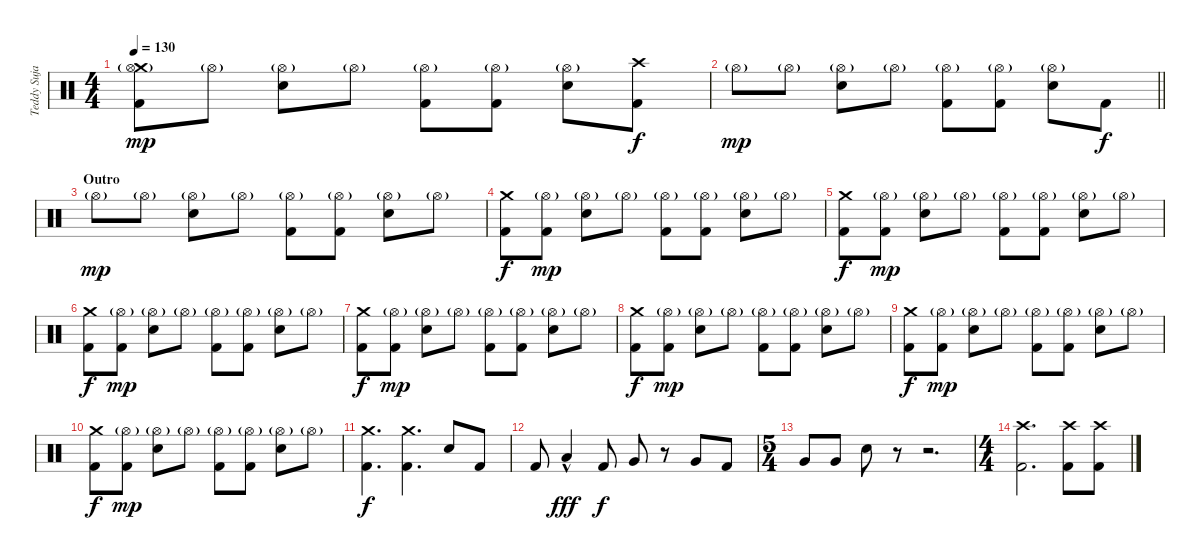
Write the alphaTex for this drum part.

\track ("Teddy Sujaya" "Teddy Suja") {instrument percussion}
\staff {score}
\articulation defaults
\ts (4 4)
\tempo 130
\clef neutral
\ks c
("Crash medium (hit)" "Hi-Hat (open)"{g} "Kick (hit) 2").8{dy mp} "Hi-Hat (open)"{g}.8 ("Hi-Hat (open)"{g} "Electric Snare (hit)").8 "Hi-Hat (open)"{g}.8 ("Hi-Hat (open)"{g} "Kick (hit) 2").8 ("Hi-Hat (open)"{g} "Kick (hit) 2").8 ("Hi-Hat (open)"{g} "Electric Snare (hit)").8 ("Crash high (hit)" "Kick (hit) 2").8{dy f} |
\barLineRight lightlight "Hi-Hat (open)"{g}.8{dy mp} "Hi-Hat (open)"{g}.8
("Hi-Hat (open)"{g} "Electric Snare (hit)").8 "Hi-Hat (open)"{g}.8 ("Hi-Hat (open)"{g} "Kick (hit) 2").8 ("Hi-Hat (open)"{g} "Kick (hit) 2").8 ("Hi-Hat (open)"{g} "Electric Snare (hit)").8 "Kick (hit) 2".8{dy f} |
\section ("" "Outro")
"Hi-Hat (open)"{g}.8{dy mp} "Hi-Hat (open)"{g}.8 ("Hi-Hat (open)"{g} "Electric Snare (hit)").8 "Hi-Hat (open)"{g}.8 ("Hi-Hat (open)"{g} "Kick (hit) 2").8 ("Hi-Hat (open)"{g} "Kick (hit) 2").8 ("Hi-Hat (open)"{g} "Electric Snare (hit)").8 "Hi-Hat (open)"{g}.8 |
("Crash medium (hit)" "Kick (hit) 2").8{dy f} ("Hi-Hat (open)"{g} "Kick (hit) 2").8{dy mp} ("Hi-Hat (open)"{g} "Electric Snare (hit)").8 "Hi-Hat (open)"{g}.8 ("Hi-Hat (open)"{g} "Kick (hit) 2").8 ("Hi-Hat (open)"{g} "Kick (hit) 2").8 ("Hi-Hat (open)"{g} "Electric Snare (hit)").8 "Hi-Hat (open)"{g}.8 |
("Crash medium (hit)" "Kick (hit) 2").8{dy f} ("Hi-Hat (open)"{g} "Kick (hit) 2").8{dy mp} ("Hi-Hat (open)"{g} "Electric Snare (hit)").8 "Hi-Hat (open)"{g}.8 ("Hi-Hat (open)"{g} "Kick (hit) 2").8 ("Hi-Hat (open)"{g} "Kick (hit) 2").8 ("Hi-Hat (open)"{g} "Electric Snare (hit)").8 "Hi-Hat (open)"{g}.8 |
("Crash medium (hit)" "Kick (hit) 2").8{dy f} ("Hi-Hat (open)"{g} "Kick (hit) 2").8{dy mp} ("Hi-Hat (open)"{g} "Electric Snare (hit)").8 "Hi-Hat (open)"{g}.8 ("Hi-Hat (open)"{g} "Kick (hit) 2").8 ("Hi-Hat (open)"{g} "Kick (hit) 2").8 ("Hi-Hat (open)"{g} "Electric Snare (hit)").8 "Hi-Hat (open)"{g}.8 |
("Crash medium (hit)" "Kick (hit) 2").8{dy f} ("Hi-Hat (open)"{g} "Kick (hit) 2").8{dy mp} ("Hi-Hat (open)"{g} "Electric Snare (hit)").8 "Hi-Hat (open)"{g}.8 ("Hi-Hat (open)"{g} "Kick (hit) 2").8 ("Hi-Hat (open)"{g} "Kick (hit) 2").8 ("Hi-Hat (open)"{g} "Electric Snare (hit)").8 "Hi-Hat (open)"{g}.8 |
("Crash medium (hit)" "Kick (hit) 2").8{dy f} ("Hi-Hat (open)"{g} "Kick (hit) 2").8{dy mp} ("Hi-Hat (open)"{g} "Electric Snare (hit)").8 "Hi-Hat (open)"{g}.8 ("Hi-Hat (open)"{g} "Kick (hit) 2").8 ("Hi-Hat (open)"{g} "Kick (hit) 2").8 ("Hi-Hat (open)"{g} "Electric Snare (hit)").8 "Hi-Hat (open)"{g}.8 |
("Crash medium (hit)" "Kick (hit) 2").8{dy f} ("Hi-Hat (open)"{g} "Kick (hit) 2").8{dy mp} ("Hi-Hat (open)"{g} "Electric Snare (hit)").8 "Hi-Hat (open)"{g}.8 ("Hi-Hat (open)"{g} "Kick (hit) 2").8 ("Hi-Hat (open)"{g} "Kick (hit) 2").8 ("Hi-Hat (open)"{g} "Electric Snare (hit)").8 "Hi-Hat (open)"{g}.8 |
("Crash medium (hit)" "Kick (hit) 2").8{dy f} ("Hi-Hat (open)"{g} "Kick (hit) 2").8{dy mp} ("Hi-Hat (open)"{g} "Electric Snare (hit)").8 "Hi-Hat (open)"{g}.8 ("Hi-Hat (open)"{g} "Kick (hit) 2").8 ("Hi-Hat (open)"{g} "Kick (hit) 2").8 ("Hi-Hat (open)"{g} "Electric Snare (hit)").8 "Hi-Hat (open)"{g}.8 |
("Crash medium (hit)" "Kick (hit) 2").4{d dy f} ("Crash medium (hit)" "Kick (hit) 2").4{d} "Electric Snare (hit)".8 "Kick (hit) 2".8 |
"Kick (hit) 2".8 "Low Tom (hit)"{hac}.4{dy fff} "Kick (hit) 2".8{dy f} "Very Low Tom (hit)".8 r.8 "Very Low Tom (hit)".8 "Kick (hit) 2".8 |
\ts (5 4)
"Very Low Tom (hit)".8 "Very Low Tom (hit)".8 "Electric Snare (hit)".8 r.8 r.2{d} |
\ts (4 4)
("Crash high (hit)" "Kick (hit) 2").2{d} ("Crash high (hit)" "Kick (hit) 2").8 ("Crash high (hit)" "Kick (hit) 2").8
